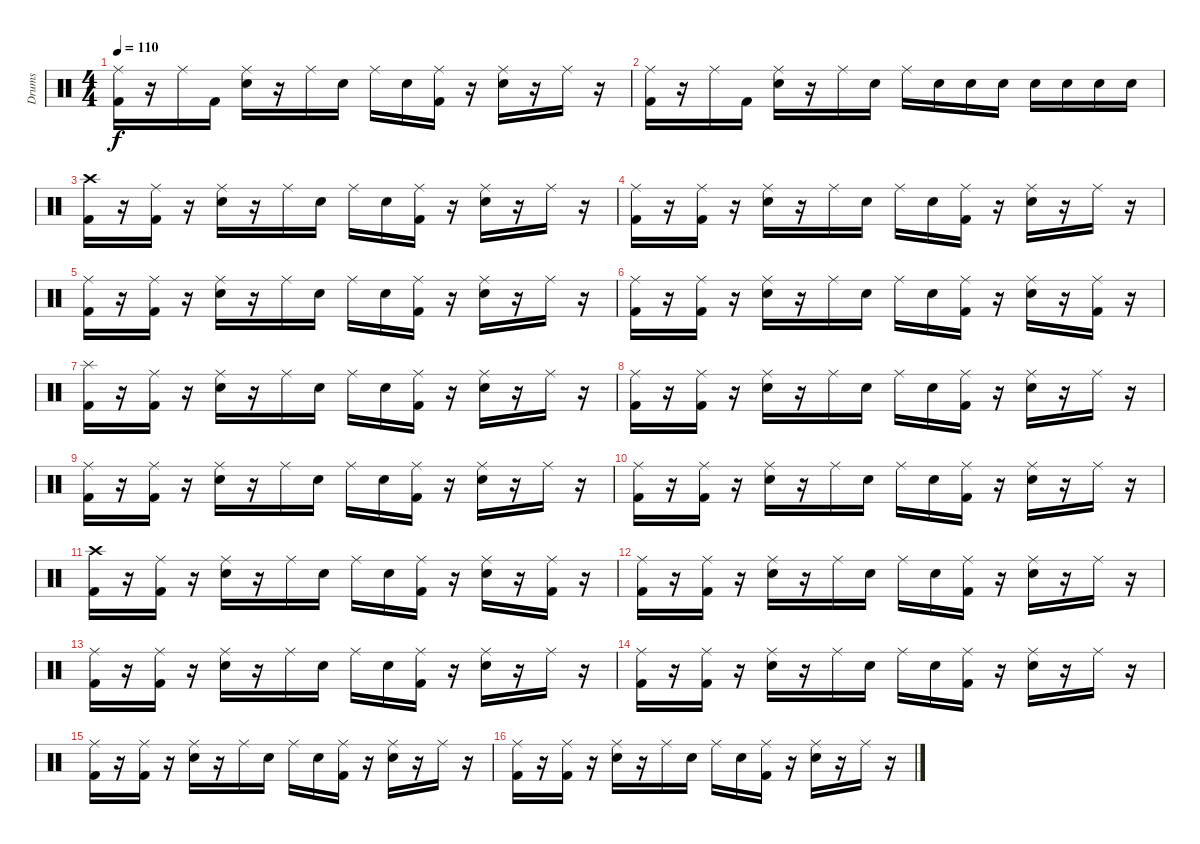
\track ("Drums" "Drums") {instrument percussion}
\staff {score}
\articulation defaults
\ts (4 4)
\tempo 110
\clef neutral
\ks c
("Ride (middle)" "Kick (hit) 2").16{dy f} r.16 "Ride (middle)".16 "Kick (hit) 2".16 ("Ride (middle)" "Electric Snare (hit)").16 r.16 "Ride (middle)".16 "Electric Snare (hit)".16 "Ride (middle)".16 "Electric Snare (hit)".16 ("Ride (middle)" "Kick (hit) 2").16 r.16 ("Ride (middle)" "Electric Snare (hit)").16 r.16 "Ride (middle)".16 r.16 |
("Ride (middle)" "Kick (hit) 2").16 r.16 "Ride (middle)".16 "Kick (hit) 2".16 ("Ride (middle)" "Electric Snare (hit)").16 r.16 "Ride (middle)".16 "Electric Snare (hit)".16 "Ride (middle)".16 "Electric Snare (hit)".16 "Electric Snare (hit)".16 "Electric Snare (hit)".16 "Electric Snare (hit)".16 "Electric Snare (hit)".16 "Electric Snare (hit)".16 "Electric Snare (hit)".16 |
("Crash high (hit)" "Kick (hit) 2").16 r.16 ("Ride (middle)" "Kick (hit) 2").16 r.16 ("Ride (middle)" "Electric Snare (hit)").16 r.16 "Ride (middle)".16 "Electric Snare (hit)".16 "Ride (middle)".16 "Electric Snare (hit)".16 ("Ride (middle)" "Kick (hit) 2").16 r.16 ("Ride (middle)" "Electric Snare (hit)").16 r.16 "Ride (middle)".16 r.16 |
("Ride (middle)" "Kick (hit) 2").16 r.16 ("Ride (middle)" "Kick (hit) 2").16 r.16 ("Ride (middle)" "Electric Snare (hit)").16 r.16 "Ride (middle)".16 "Electric Snare (hit)".16 "Ride (middle)".16 "Electric Snare (hit)".16 ("Ride (middle)" "Kick (hit) 2").16 r.16 ("Ride (middle)" "Electric Snare (hit)").16 r.16 "Ride (middle)".16 r.16 |
("Ride (middle)" "Kick (hit) 2").16 r.16 ("Ride (middle)" "Kick (hit) 2").16 r.16 ("Ride (middle)" "Electric Snare (hit)").16 r.16 "Ride (middle)".16 "Electric Snare (hit)".16 "Ride (middle)".16 "Electric Snare (hit)".16 ("Ride (middle)" "Kick (hit) 2").16 r.16 ("Ride (middle)" "Electric Snare (hit)").16 r.16 "Ride (middle)".16 r.16 |
("Ride (middle)" "Kick (hit) 2").16 r.16 ("Ride (middle)" "Kick (hit) 2").16 r.16 ("Ride (middle)" "Electric Snare (hit)").16 r.16 "Ride (middle)".16 "Electric Snare (hit)".16 "Ride (middle)".16 "Electric Snare (hit)".16 ("Ride (middle)" "Kick (hit) 2").16 r.16 ("Ride (middle)" "Electric Snare (hit)").16 r.16 ("Ride (middle)" "Kick (hit) 2").16 r.16 |
("Splash (hit)" "Kick (hit) 2").16 r.16 ("Ride (middle)" "Kick (hit) 2").16 r.16 ("Ride (middle)" "Electric Snare (hit)").16 r.16 "Ride (middle)".16 "Electric Snare (hit)".16 "Ride (middle)".16 "Electric Snare (hit)".16 ("Ride (middle)" "Kick (hit) 2").16 r.16 ("Ride (middle)" "Electric Snare (hit)").16 r.16 "Ride (middle)".16 r.16 |
("Ride (middle)" "Kick (hit) 2").16 r.16 ("Ride (middle)" "Kick (hit) 2").16 r.16 ("Ride (middle)" "Electric Snare (hit)").16 r.16 "Ride (middle)".16 "Electric Snare (hit)".16 "Ride (middle)".16 "Electric Snare (hit)".16 ("Ride (middle)" "Kick (hit) 2").16 r.16 ("Ride (middle)" "Electric Snare (hit)").16 r.16 "Ride (middle)".16 r.16 |
("Ride (middle)" "Kick (hit) 2").16 r.16 ("Ride (middle)" "Kick (hit) 2").16 r.16 ("Ride (middle)" "Electric Snare (hit)").16 r.16 "Ride (middle)".16 "Electric Snare (hit)".16 "Ride (middle)".16 "Electric Snare (hit)".16 ("Ride (middle)" "Kick (hit) 2").16 r.16 ("Ride (middle)" "Electric Snare (hit)").16 r.16 "Ride (middle)".16 r.16 |
("Ride (middle)" "Kick (hit) 2").16 r.16 ("Ride (middle)" "Kick (hit) 2").16 r.16 ("Ride (middle)" "Electric Snare (hit)").16 r.16 "Ride (middle)".16 "Electric Snare (hit)".16 "Ride (middle)".16 "Electric Snare (hit)".16 ("Ride (middle)" "Kick (hit) 2").16 r.16 ("Ride (middle)" "Electric Snare (hit)").16 r.16 "Ride (middle)".16 r.16 |
("Crash high (hit)" "Kick (hit) 2").16 r.16 ("Ride (middle)" "Kick (hit) 2").16 r.16 ("Ride (middle)" "Electric Snare (hit)").16 r.16 "Ride (middle)".16 "Electric Snare (hit)".16 "Ride (middle)".16 "Electric Snare (hit)".16 ("Ride (middle)" "Kick (hit) 2").16 r.16 ("Ride (middle)" "Electric Snare (hit)").16 r.16 ("Ride (middle)" "Kick (hit) 2").16 r.16 |
("Ride (middle)" "Kick (hit) 2").16 r.16 ("Ride (middle)" "Kick (hit) 2").16 r.16 ("Ride (middle)" "Electric Snare (hit)").16 r.16 "Ride (middle)".16 "Electric Snare (hit)".16 "Ride (middle)".16 "Electric Snare (hit)".16 ("Ride (middle)" "Kick (hit) 2").16 r.16 ("Ride (middle)" "Electric Snare (hit)").16 r.16 "Ride (middle)".16 r.16 |
("Ride (middle)" "Kick (hit) 2").16 r.16 ("Ride (middle)" "Kick (hit) 2").16 r.16 ("Ride (middle)" "Electric Snare (hit)").16 r.16 "Ride (middle)".16 "Electric Snare (hit)".16 "Ride (middle)".16 "Electric Snare (hit)".16 ("Ride (middle)" "Kick (hit) 2").16 r.16 ("Ride (middle)" "Electric Snare (hit)").16 r.16 "Ride (middle)".16 r.16 |
("Ride (middle)" "Kick (hit) 2").16 r.16 ("Ride (middle)" "Kick (hit) 2").16 r.16 ("Ride (middle)" "Electric Snare (hit)").16 r.16 "Ride (middle)".16 "Electric Snare (hit)".16 "Ride (middle)".16 "Electric Snare (hit)".16 ("Ride (middle)" "Kick (hit) 2").16 r.16 ("Ride (middle)" "Electric Snare (hit)").16 r.16 "Ride (middle)".16 r.16 |
("Ride (middle)" "Kick (hit) 2").16 r.16 ("Ride (middle)" "Kick (hit) 2").16 r.16 ("Ride (middle)" "Electric Snare (hit)").16 r.16 "Ride (middle)".16 "Electric Snare (hit)".16 "Ride (middle)".16 "Electric Snare (hit)".16 ("Ride (middle)" "Kick (hit) 2").16 r.16 ("Ride (middle)" "Electric Snare (hit)").16 r.16 "Ride (middle)".16 r.16 |
("Ride (middle)" "Kick (hit) 2").16 r.16 ("Ride (middle)" "Kick (hit) 2").16 r.16 ("Ride (middle)" "Electric Snare (hit)").16 r.16 "Ride (middle)".16 "Electric Snare (hit)".16 "Ride (middle)".16 "Electric Snare (hit)".16 ("Ride (middle)" "Kick (hit) 2").16 r.16 ("Ride (middle)" "Electric Snare (hit)").16 r.16 "Ride (middle)".16 r.16
